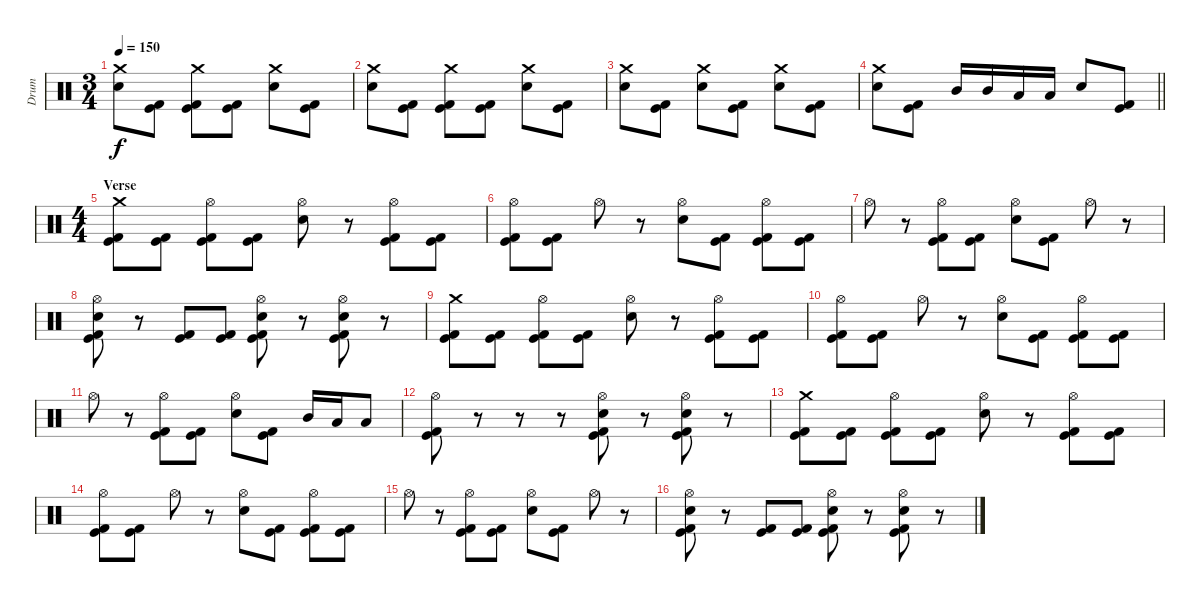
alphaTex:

\track ("Drum" "Drum") {instrument percussion}
\staff {score}
\articulation defaults
\ts (3 4)
\tempo 150
\clef neutral
\ks c
("Crash medium (hit)" "Electric Snare (hit)").8{dy f} ("Kick (hit)" "Kick (hit) 2").8 ("Crash medium (hit)" "Kick (hit)" "Kick (hit) 2").8 ("Kick (hit)" "Kick (hit) 2").8 ("Crash medium (hit)" "Electric Snare (hit)").8 ("Kick (hit)" "Kick (hit) 2").8 |
("Crash medium (hit)" "Electric Snare (hit)").8 ("Kick (hit)" "Kick (hit) 2").8 ("Crash medium (hit)" "Kick (hit)" "Kick (hit) 2").8 ("Kick (hit)" "Kick (hit) 2").8 ("Crash medium (hit)" "Electric Snare (hit)").8 ("Kick (hit)" "Kick (hit) 2").8 |
("Crash medium (hit)" "Electric Snare (hit)").8 ("Kick (hit)" "Kick (hit) 2").8 ("Crash medium (hit)" "Electric Snare (hit)").8 ("Kick (hit)" "Kick (hit) 2").8 ("Crash medium (hit)" "Electric Snare (hit)").8 ("Kick (hit)" "Kick (hit) 2").8 |
\barLineRight lightlight
("Crash medium (hit)" "Electric Snare (hit)").8 ("Kick (hit)" "Kick (hit) 2").8 "Mid Tom (hit)".16 "Mid Tom (hit)".16 "Low Tom (hit)".16 "Low Tom (hit)".16 "Electric Snare (hit)".8 ("Kick (hit)" "Kick (hit) 2").8 |
\ts (4 4)
\section ("" "Verse")
("Crash medium (hit)" "Kick (hit)" "Kick (hit) 2").8 ("Kick (hit)" "Kick (hit) 2").8 ("Hi-Hat (open)" "Kick (hit)" "Kick (hit) 2").8 ("Kick (hit)" "Kick (hit) 2").8 ("Hi-Hat (open)" "Electric Snare (hit)").8 r.8 ("Hi-Hat (open)" "Kick (hit)" "Kick (hit) 2").8 ("Kick (hit)" "Kick (hit) 2").8 |
("Hi-Hat (open)" "Kick (hit)" "Kick (hit) 2").8 ("Kick (hit)" "Kick (hit) 2").8 "Hi-Hat (open)".8 r.8 ("Hi-Hat (open)" "Electric Snare (hit)").8 ("Kick (hit)" "Kick (hit) 2").8 ("Hi-Hat (open)" "Kick (hit)" "Kick (hit) 2").8 ("Kick (hit)" "Kick (hit) 2").8 |
"Hi-Hat (open)".8 r.8 ("Hi-Hat (open)" "Kick (hit)" "Kick (hit) 2").8 ("Kick (hit)" "Kick (hit) 2").8 ("Hi-Hat (open)" "Electric Snare (hit)").8 ("Kick (hit)" "Kick (hit) 2").8 "Hi-Hat (open)".8 r.8 |
("Hi-Hat (open)" "Electric Snare (hit)" "Kick (hit)" "Kick (hit) 2").8 r.8 ("Kick (hit)" "Kick (hit) 2").8 ("Kick (hit)" "Kick (hit) 2").8 ("Hi-Hat (open)" "Electric Snare (hit)" "Kick (hit)" "Kick (hit) 2").8 r.8 ("Hi-Hat (open)" "Electric Snare (hit)" "Kick (hit)" "Kick (hit) 2").8 r.8 |
("Crash medium (hit)" "Kick (hit)" "Kick (hit) 2").8 ("Kick (hit)" "Kick (hit) 2").8 ("Hi-Hat (open)" "Kick (hit)" "Kick (hit) 2").8 ("Kick (hit)" "Kick (hit) 2").8 ("Hi-Hat (open)" "Electric Snare (hit)").8 r.8 ("Hi-Hat (open)" "Kick (hit)" "Kick (hit) 2").8 ("Kick (hit)" "Kick (hit) 2").8 |
("Hi-Hat (open)" "Kick (hit)" "Kick (hit) 2").8 ("Kick (hit)" "Kick (hit) 2").8 "Hi-Hat (open)".8 r.8 ("Hi-Hat (open)" "Electric Snare (hit)").8 ("Kick (hit)" "Kick (hit) 2").8 ("Hi-Hat (open)" "Kick (hit)" "Kick (hit) 2").8 ("Kick (hit)" "Kick (hit) 2").8 |
"Hi-Hat (open)".8 r.8 ("Hi-Hat (open)" "Kick (hit)" "Kick (hit) 2").8 ("Kick (hit)" "Kick (hit) 2").8 ("Hi-Hat (open)" "Electric Snare (hit)").8 ("Kick (hit)" "Kick (hit) 2").8 "Mid Tom (hit)".16 "Low Tom (hit)".16 "Low Floor Tom (hit)".8 |
("Hi-Hat (open)" "Kick (hit)" "Kick (hit) 2").8 r.8 r.8 r.8 ("Hi-Hat (open)" "Electric Snare (hit)" "Kick (hit)" "Kick (hit) 2").8 r.8 ("Hi-Hat (open)" "Electric Snare (hit)" "Kick (hit)" "Kick (hit) 2").8 r.8 |
("Crash medium (hit)" "Kick (hit)" "Kick (hit) 2").8 ("Kick (hit)" "Kick (hit) 2").8 ("Hi-Hat (open)" "Kick (hit)" "Kick (hit) 2").8 ("Kick (hit)" "Kick (hit) 2").8 ("Hi-Hat (open)" "Electric Snare (hit)").8 r.8 ("Hi-Hat (open)" "Kick (hit)" "Kick (hit) 2").8 ("Kick (hit)" "Kick (hit) 2").8 |
("Hi-Hat (open)" "Kick (hit)" "Kick (hit) 2").8 ("Kick (hit)" "Kick (hit) 2").8 "Hi-Hat (open)".8 r.8 ("Hi-Hat (open)" "Electric Snare (hit)").8 ("Kick (hit)" "Kick (hit) 2").8 ("Hi-Hat (open)" "Kick (hit)" "Kick (hit) 2").8 ("Kick (hit)" "Kick (hit) 2").8 |
"Hi-Hat (open)".8 r.8 ("Hi-Hat (open)" "Kick (hit)" "Kick (hit) 2").8 ("Kick (hit)" "Kick (hit) 2").8 ("Hi-Hat (open)" "Electric Snare (hit)").8 ("Kick (hit)" "Kick (hit) 2").8 "Hi-Hat (open)".8 r.8 |
("Hi-Hat (open)" "Electric Snare (hit)" "Kick (hit)" "Kick (hit) 2").8 r.8 ("Kick (hit)" "Kick (hit) 2").8 ("Kick (hit)" "Kick (hit) 2").8 ("Hi-Hat (open)" "Electric Snare (hit)" "Kick (hit)" "Kick (hit) 2").8 r.8 ("Hi-Hat (open)" "Electric Snare (hit)" "Kick (hit)" "Kick (hit) 2").8 r.8
